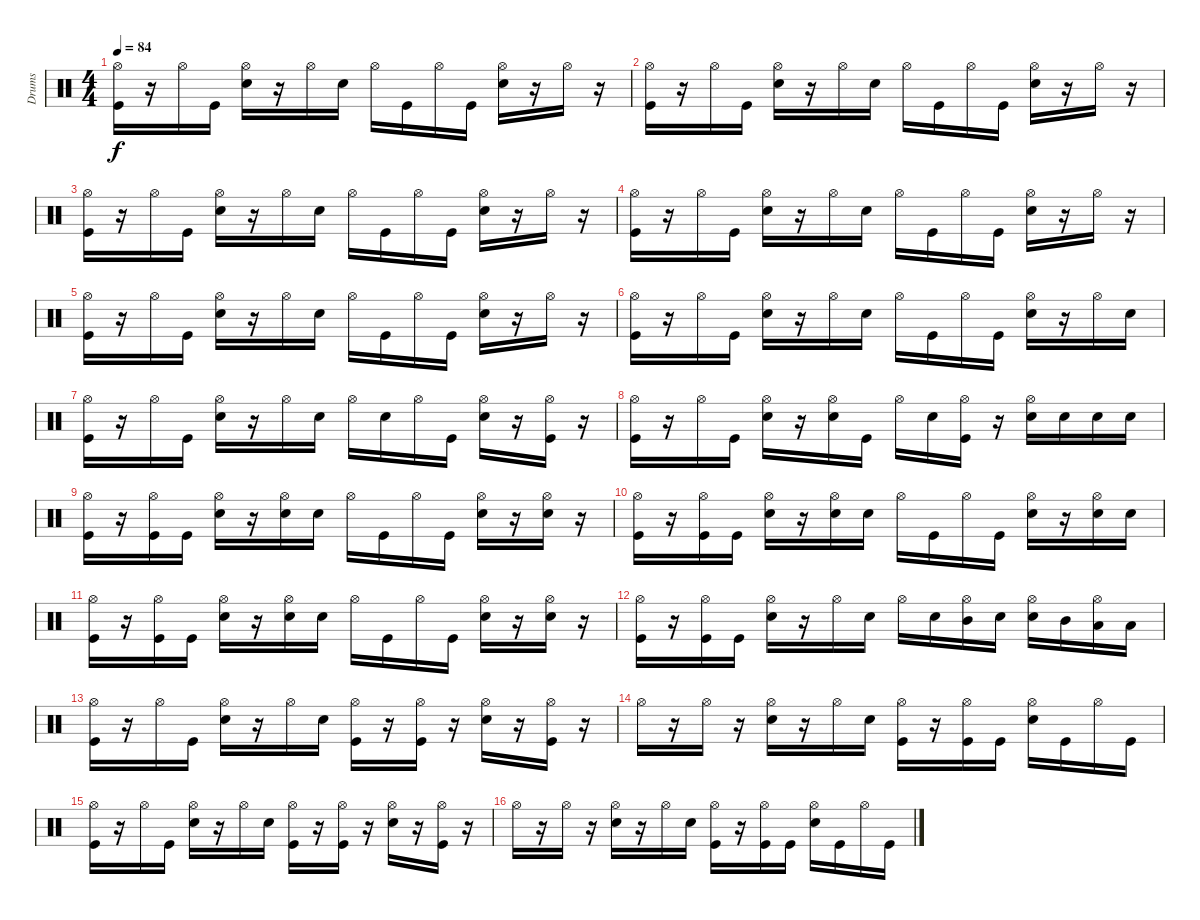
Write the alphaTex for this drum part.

\track ("Drums" "Drums") {instrument percussion}
\staff {score}
\articulation defaults
\ts (4 4)
\tempo 84
\clef neutral
\ks c
("Hi-Hat (open)" "Kick (hit)").16{dy f} r.16 "Hi-Hat (open)".16 "Kick (hit)".16 ("Hi-Hat (open)" "Snare (hit) 2").16 r.16 "Hi-Hat (open)".16 "Snare (hit) 2".16 "Hi-Hat (open)".16 "Kick (hit)".16 "Hi-Hat (open)".16 "Kick (hit)".16 ("Hi-Hat (open)" "Snare (hit) 2").16 r.16 "Hi-Hat (open)".16 r.16 |
("Hi-Hat (open)" "Kick (hit)").16 r.16 "Hi-Hat (open)".16 "Kick (hit)".16 ("Hi-Hat (open)" "Snare (hit) 2").16 r.16 "Hi-Hat (open)".16 "Snare (hit) 2".16 "Hi-Hat (open)".16 "Kick (hit)".16 "Hi-Hat (open)".16 "Kick (hit)".16 ("Hi-Hat (open)" "Snare (hit) 2").16 r.16 "Hi-Hat (open)".16 r.16 |
("Hi-Hat (open)" "Kick (hit)").16 r.16 "Hi-Hat (open)".16 "Kick (hit)".16 ("Hi-Hat (open)" "Snare (hit) 2").16 r.16 "Hi-Hat (open)".16 "Snare (hit) 2".16 "Hi-Hat (open)".16 "Kick (hit)".16 "Hi-Hat (open)".16 "Kick (hit)".16 ("Hi-Hat (open)" "Snare (hit) 2").16 r.16 "Hi-Hat (open)".16 r.16 |
("Hi-Hat (open)" "Kick (hit)").16 r.16 "Hi-Hat (open)".16 "Kick (hit)".16 ("Hi-Hat (open)" "Snare (hit) 2").16 r.16 "Hi-Hat (open)".16 "Snare (hit) 2".16 "Hi-Hat (open)".16 "Kick (hit)".16 "Hi-Hat (open)".16 "Kick (hit)".16 ("Hi-Hat (open)" "Snare (hit) 2").16 r.16 "Hi-Hat (open)".16 r.16 |
("Hi-Hat (open)" "Kick (hit)").16 r.16 "Hi-Hat (open)".16 "Kick (hit)".16 ("Hi-Hat (open)" "Snare (hit) 2").16 r.16 "Hi-Hat (open)".16 "Snare (hit) 2".16 "Hi-Hat (open)".16 "Kick (hit)".16 "Hi-Hat (open)".16 "Kick (hit)".16 ("Hi-Hat (open)" "Snare (hit) 2").16 r.16 "Hi-Hat (open)".16 r.16 |
("Hi-Hat (open)" "Kick (hit)").16 r.16 "Hi-Hat (open)".16 "Kick (hit)".16 ("Hi-Hat (open)" "Snare (hit) 2").16 r.16 "Hi-Hat (open)".16 "Snare (hit) 2".16 "Hi-Hat (open)".16 "Kick (hit)".16 "Hi-Hat (open)".16 "Kick (hit)".16 ("Hi-Hat (open)" "Snare (hit) 2").16 r.16 "Hi-Hat (open)".16 "Snare (hit) 2".16 |
("Hi-Hat (open)" "Kick (hit)").16 r.16 "Hi-Hat (open)".16 "Kick (hit)".16 ("Hi-Hat (open)" "Snare (hit) 2").16 r.16 "Hi-Hat (open)".16 "Snare (hit) 2".16 "Hi-Hat (open)".16 "Snare (hit) 2".16 "Hi-Hat (open)".16 "Kick (hit)".16 ("Hi-Hat (open)" "Snare (hit) 2").16 r.16 ("Hi-Hat (open)" "Kick (hit)").16 r.16 |
("Hi-Hat (open)" "Kick (hit)").16 r.16 "Hi-Hat (open)".16 "Kick (hit)".16 ("Hi-Hat (open)" "Snare (hit) 2").16 r.16 ("Hi-Hat (open)" "Snare (hit) 2").16 "Kick (hit)".16 "Hi-Hat (open)".16 "Snare (hit) 2".16 ("Hi-Hat (open)" "Kick (hit)").16 r.16 ("Hi-Hat (open)" "Snare (hit) 2").16 "Snare (hit) 2".16 "Snare (hit) 2".16 "Snare (hit) 2".16 |
("Hi-Hat (open)" "Kick (hit)").16 r.16 ("Hi-Hat (open)" "Kick (hit)").16 "Kick (hit)".16 ("Hi-Hat (open)" "Snare (hit) 2").16 r.16 ("Hi-Hat (open)" "Snare (hit) 2").16 "Snare (hit) 2".16 "Hi-Hat (open)".16 "Kick (hit)".16 "Hi-Hat (open)".16 "Kick (hit)".16 ("Hi-Hat (open)" "Snare (hit) 2").16 r.16 ("Hi-Hat (open)" "Snare (hit) 2").16 r.16 |
("Hi-Hat (open)" "Kick (hit)").16 r.16 ("Hi-Hat (open)" "Kick (hit)").16 "Kick (hit)".16 ("Hi-Hat (open)" "Snare (hit) 2").16 r.16 ("Hi-Hat (open)" "Snare (hit) 2").16 "Snare (hit) 2".16 "Hi-Hat (open)".16 "Kick (hit)".16 "Hi-Hat (open)".16 "Kick (hit)".16 ("Hi-Hat (open)" "Snare (hit) 2").16 r.16 ("Hi-Hat (open)" "Snare (hit) 2").16 "Snare (hit) 2".16 |
("Hi-Hat (open)" "Kick (hit)").16 r.16 ("Hi-Hat (open)" "Kick (hit)").16 "Kick (hit)".16 ("Hi-Hat (open)" "Snare (hit) 2").16 r.16 ("Hi-Hat (open)" "Snare (hit) 2").16 "Snare (hit) 2".16 "Hi-Hat (open)".16 "Kick (hit)".16 "Hi-Hat (open)".16 "Kick (hit)".16 ("Hi-Hat (open)" "Snare (hit) 2").16 r.16 ("Hi-Hat (open)" "Snare (hit) 2").16 r.16 |
("Hi-Hat (open)" "Kick (hit)").16 r.16 ("Hi-Hat (open)" "Kick (hit)").16 "Kick (hit)".16 ("Hi-Hat (open)" "Snare (hit) 2").16 r.16 "Hi-Hat (open)".16 "Snare (hit) 2".16 "Hi-Hat (open)".16 "Snare (hit) 2".16 ("Hi-Hat (open)" "Mid Tom (hit)").16 "Snare (hit) 2".16 ("Hi-Hat (open)" "Snare (hit) 2").16 "Mid Tom (hit)".16 ("Hi-Hat (open)" "Low Tom (hit)").16 "Low Floor Tom (hit)".16 |
("Hi-Hat (open)" "Kick (hit)").16 r.16 "Hi-Hat (open)".16 "Kick (hit)".16 ("Hi-Hat (open)" "Snare (hit) 2").16 r.16 "Hi-Hat (open)".16 "Snare (hit) 2".16 ("Hi-Hat (open)" "Kick (hit)").16 r.16 ("Hi-Hat (open)" "Kick (hit)").16 r.16 ("Hi-Hat (open)" "Snare (hit) 2").16 r.16 ("Hi-Hat (open)" "Kick (hit)").16 r.16 |
"Hi-Hat (open)".16 r.16 "Hi-Hat (open)".16 r.16 ("Hi-Hat (open)" "Snare (hit) 2").16 r.16 "Hi-Hat (open)".16 "Snare (hit) 2".16 ("Hi-Hat (open)" "Kick (hit)").16 r.16 ("Hi-Hat (open)" "Kick (hit)").16 "Kick (hit)".16 ("Hi-Hat (open)" "Snare (hit) 2").16 "Kick (hit)".16 "Hi-Hat (open)".16 "Kick (hit)".16 |
("Hi-Hat (open)" "Kick (hit)").16 r.16 "Hi-Hat (open)".16 "Kick (hit)".16 ("Hi-Hat (open)" "Snare (hit) 2").16 r.16 "Hi-Hat (open)".16 "Snare (hit) 2".16 ("Hi-Hat (open)" "Kick (hit)").16 r.16 ("Hi-Hat (open)" "Kick (hit)").16 r.16 ("Hi-Hat (open)" "Snare (hit) 2").16 r.16 ("Hi-Hat (open)" "Kick (hit)").16 r.16 |
"Hi-Hat (open)".16 r.16 "Hi-Hat (open)".16 r.16 ("Hi-Hat (open)" "Snare (hit) 2").16 r.16 "Hi-Hat (open)".16 "Snare (hit) 2".16 ("Hi-Hat (open)" "Kick (hit)").16 r.16 ("Hi-Hat (open)" "Kick (hit)").16 "Kick (hit)".16 ("Hi-Hat (open)" "Snare (hit) 2").16 "Kick (hit)".16 "Hi-Hat (open)".16 "Kick (hit)".16
